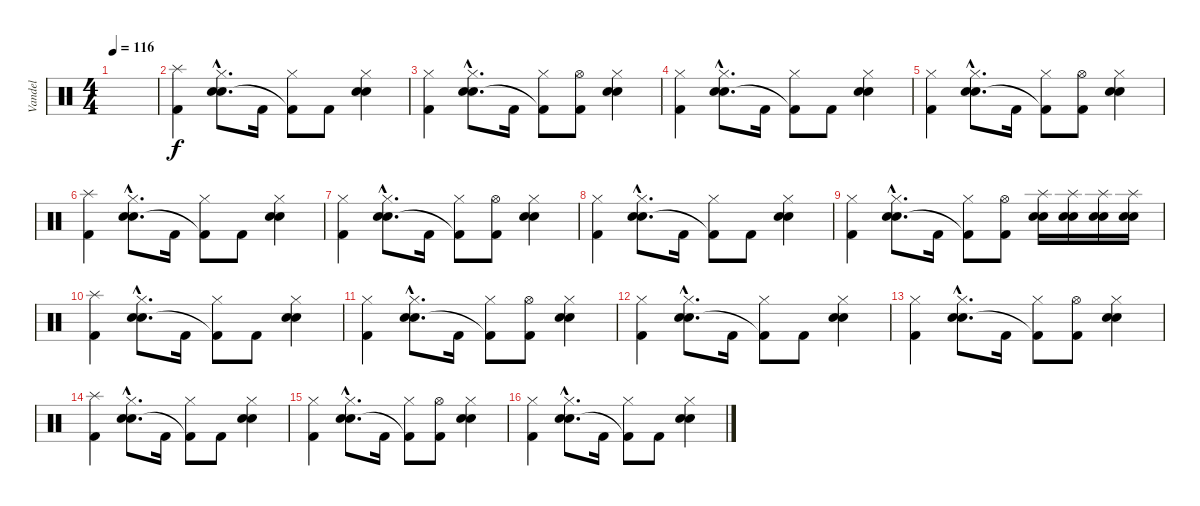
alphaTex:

\track ("Vandel" "Vandel") {instrument percussion}
\staff {score}
\articulation defaults
\ts (4 4)
\tempo 116
\clef neutral
\ks c
|
("Splash (hit)" "Kick (hit) 2").4 ("Hi-Hat (closed)"{hac} "Electric Snare (hit)"{hac} "Electric Snare (hit)"{hac}).8{d} "Kick (hit) 2".16 ("Hi-Hat (closed)" "Kick (hit) 2"{t}).8 "Kick (hit) 2".8 ("Hi-Hat (closed)" "Electric Snare (hit)" "Electric Snare (hit)").4 |
("Hi-Hat (closed)" "Kick (hit) 2").4 ("Hi-Hat (closed)"{hac} "Electric Snare (hit)"{hac} "Electric Snare (hit)"{hac}).8{d} "Kick (hit) 2".16 ("Hi-Hat (closed)" "Kick (hit) 2"{t}).8 ("Hi-Hat (open)" "Kick (hit) 2").8 ("Hi-Hat (closed)" "Electric Snare (hit)" "Electric Snare (hit)").4 |
("Hi-Hat (closed)" "Kick (hit) 2").4 ("Hi-Hat (closed)"{hac} "Electric Snare (hit)"{hac} "Electric Snare (hit)"{hac}).8{d} "Kick (hit) 2".16 ("Hi-Hat (closed)" "Kick (hit) 2"{t}).8 "Kick (hit) 2".8 ("Hi-Hat (closed)" "Electric Snare (hit)" "Electric Snare (hit)").4 |
("Hi-Hat (closed)" "Kick (hit) 2").4 ("Hi-Hat (closed)"{hac} "Electric Snare (hit)"{hac} "Electric Snare (hit)"{hac}).8{d} "Kick (hit) 2".16 ("Hi-Hat (closed)" "Kick (hit) 2"{t}).8 ("Hi-Hat (open)" "Kick (hit) 2").8 ("Hi-Hat (closed)" "Electric Snare (hit)" "Electric Snare (hit)").4 |
("Splash (hit)" "Kick (hit) 2").4 ("Hi-Hat (closed)"{hac} "Electric Snare (hit)"{hac} "Electric Snare (hit)"{hac}).8{d} "Kick (hit) 2".16 ("Hi-Hat (closed)" "Kick (hit) 2"{t}).8 "Kick (hit) 2".8 ("Hi-Hat (closed)" "Electric Snare (hit)" "Electric Snare (hit)").4 |
("Hi-Hat (closed)" "Kick (hit) 2").4 ("Hi-Hat (closed)"{hac} "Electric Snare (hit)"{hac} "Electric Snare (hit)"{hac}).8{d} "Kick (hit) 2".16 ("Hi-Hat (closed)" "Kick (hit) 2"{t}).8 ("Hi-Hat (open)" "Kick (hit) 2").8 ("Hi-Hat (closed)" "Electric Snare (hit)" "Electric Snare (hit)").4 |
("Hi-Hat (closed)" "Kick (hit) 2").4 ("Hi-Hat (closed)"{hac} "Electric Snare (hit)"{hac} "Electric Snare (hit)"{hac}).8{d} "Kick (hit) 2".16 ("Hi-Hat (closed)" "Kick (hit) 2"{t}).8 "Kick (hit) 2".8 ("Hi-Hat (closed)" "Electric Snare (hit)" "Electric Snare (hit)").4 |
("Hi-Hat (closed)" "Kick (hit) 2").4 ("Hi-Hat (closed)"{hac} "Electric Snare (hit)"{hac} "Electric Snare (hit)"{hac}).8{d} "Kick (hit) 2".16 ("Hi-Hat (closed)" "Kick (hit) 2"{t}).8 ("Hi-Hat (open)" "Kick (hit) 2").8 ("Splash (hit)" "Electric Snare (hit)" "Electric Snare (hit)").16 ("Splash (hit)" "Electric Snare (hit)" "Electric Snare (hit)").16 ("Splash (hit)" "Electric Snare (hit)" "Electric Snare (hit)").16 ("Splash (hit)" "Electric Snare (hit)" "Electric Snare (hit)").16 |
("Splash (hit)" "Kick (hit) 2").4 ("Hi-Hat (closed)"{hac} "Electric Snare (hit)"{hac} "Electric Snare (hit)"{hac}).8{d} "Kick (hit) 2".16 ("Hi-Hat (closed)" "Kick (hit) 2"{t}).8 "Kick (hit) 2".8 ("Hi-Hat (closed)" "Electric Snare (hit)" "Electric Snare (hit)").4 |
("Hi-Hat (closed)" "Kick (hit) 2").4 ("Hi-Hat (closed)"{hac} "Electric Snare (hit)"{hac} "Electric Snare (hit)"{hac}).8{d} "Kick (hit) 2".16 ("Hi-Hat (closed)" "Kick (hit) 2"{t}).8 ("Hi-Hat (open)" "Kick (hit) 2").8 ("Hi-Hat (closed)" "Electric Snare (hit)" "Electric Snare (hit)").4 |
("Hi-Hat (closed)" "Kick (hit) 2").4 ("Hi-Hat (closed)"{hac} "Electric Snare (hit)"{hac} "Electric Snare (hit)"{hac}).8{d} "Kick (hit) 2".16 ("Hi-Hat (closed)" "Kick (hit) 2"{t}).8 "Kick (hit) 2".8 ("Hi-Hat (closed)" "Electric Snare (hit)" "Electric Snare (hit)").4 |
("Hi-Hat (closed)" "Kick (hit) 2").4 ("Hi-Hat (closed)"{hac} "Electric Snare (hit)"{hac} "Electric Snare (hit)"{hac}).8{d} "Kick (hit) 2".16 ("Hi-Hat (closed)" "Kick (hit) 2"{t}).8 ("Hi-Hat (open)" "Kick (hit) 2").8 ("Hi-Hat (closed)" "Electric Snare (hit)" "Electric Snare (hit)").4 |
("Splash (hit)" "Kick (hit) 2").4 ("Hi-Hat (closed)"{hac} "Electric Snare (hit)"{hac} "Electric Snare (hit)"{hac}).8{d} "Kick (hit) 2".16 ("Hi-Hat (closed)" "Kick (hit) 2"{t}).8 "Kick (hit) 2".8 ("Hi-Hat (closed)" "Electric Snare (hit)" "Electric Snare (hit)").4 |
("Hi-Hat (closed)" "Kick (hit) 2").4 ("Hi-Hat (closed)"{hac} "Electric Snare (hit)"{hac} "Electric Snare (hit)"{hac}).8{d} "Kick (hit) 2".16 ("Hi-Hat (closed)" "Kick (hit) 2"{t}).8 ("Hi-Hat (open)" "Kick (hit) 2").8 ("Hi-Hat (closed)" "Electric Snare (hit)" "Electric Snare (hit)").4 |
("Hi-Hat (closed)" "Kick (hit) 2").4 ("Hi-Hat (closed)"{hac} "Electric Snare (hit)"{hac} "Electric Snare (hit)"{hac}).8{d} "Kick (hit) 2".16 ("Hi-Hat (closed)" "Kick (hit) 2"{t}).8 "Kick (hit) 2".8 ("Hi-Hat (closed)" "Electric Snare (hit)" "Electric Snare (hit)").4
